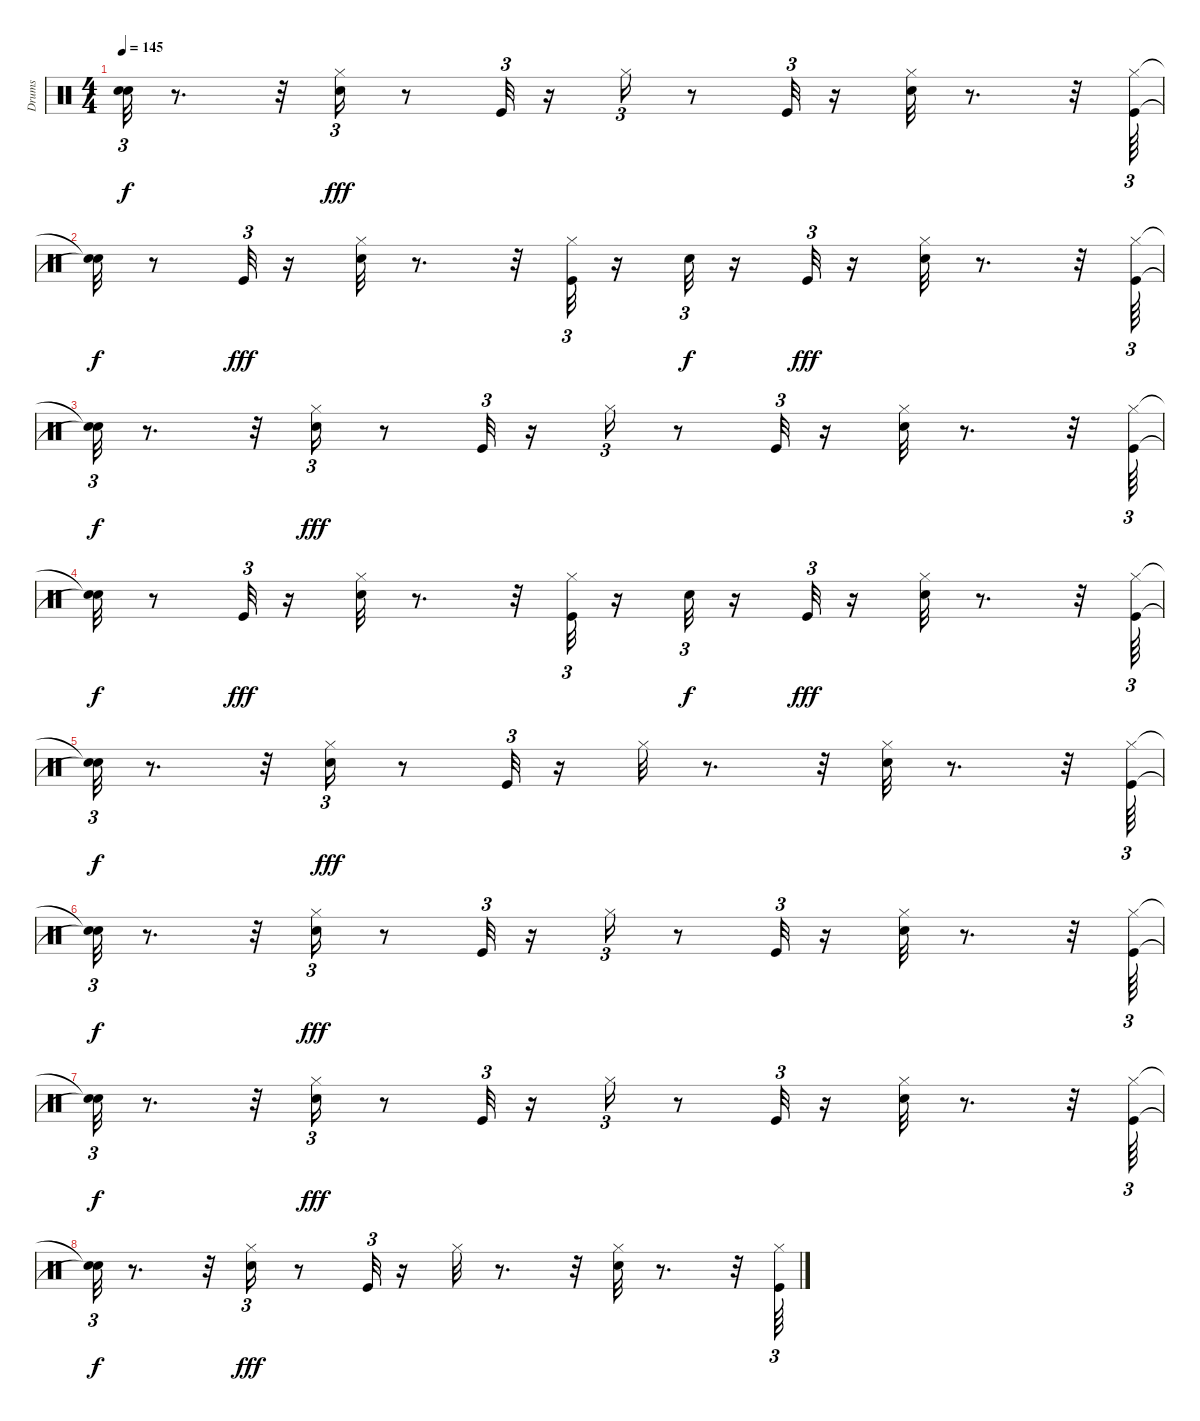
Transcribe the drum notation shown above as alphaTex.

\track ("Drums" "Drums") {instrument percussion}
\staff {score}
\articulation defaults
\ts (4 4)
\tempo 145
\clef neutral
\ks c
("Snare (hit)"{t} "Snare (hit)"{t}).32{tu (3 2) dy f} r.8{d} r.32 ("Electric Snare (hit)" "Hi-Hat (closed)").16{tu (3 2) dy fff} r.8 "Kick (hit)".32{tu (3 2)} r.16 "Hi-Hat (closed)".16{tu (3 2)} r.8 "Kick (hit)".32{tu (3 2)} r.16 ("Electric Snare (hit)" "Hi-Hat (closed)").32 r.8{d} r.32 ("Kick (hit)" "Hi-Hat (closed)").64{tu (3 2)} |
("Snare (hit)"{t} "Snare (hit)"{t}).32{dy f} r.8 "Kick (hit)".32{tu (3 2) dy fff} r.16 ("Electric Snare (hit)" "Hi-Hat (closed)").32 r.8{d} r.32 ("Kick (hit)" "Hi-Hat (closed)").32{tu (3 2)} r.16 "Electric Snare (hit)".32{tu (3 2) dy f} r.16 "Kick (hit)".32{tu (3 2) dy fff} r.16 ("Electric Snare (hit)" "Hi-Hat (closed)").32 r.8{d} r.32 ("Kick (hit)" "Hi-Hat (closed)").64{tu (3 2)} |
("Snare (hit)"{t} "Snare (hit)"{t}).32{tu (3 2) dy f} r.8{d} r.32 ("Electric Snare (hit)" "Hi-Hat (closed)").16{tu (3 2) dy fff} r.8 "Kick (hit)".32{tu (3 2)} r.16 "Hi-Hat (closed)".16{tu (3 2)} r.8 "Kick (hit)".32{tu (3 2)} r.16 ("Electric Snare (hit)" "Hi-Hat (closed)").32 r.8{d} r.32 ("Kick (hit)" "Hi-Hat (closed)").64{tu (3 2)} |
("Snare (hit)"{t} "Snare (hit)"{t}).32{dy f} r.8 "Kick (hit)".32{tu (3 2) dy fff} r.16 ("Electric Snare (hit)" "Hi-Hat (closed)").32 r.8{d} r.32 ("Kick (hit)" "Hi-Hat (closed)").32{tu (3 2)} r.16 "Electric Snare (hit)".32{tu (3 2) dy f} r.16 "Kick (hit)".32{tu (3 2) dy fff} r.16 ("Electric Snare (hit)" "Hi-Hat (closed)").32 r.8{d} r.32 ("Kick (hit)" "Hi-Hat (closed)").64{tu (3 2)} |
("Snare (hit)"{t} "Snare (hit)"{t}).32{tu (3 2) dy f} r.8{d} r.32 ("Electric Snare (hit)" "Hi-Hat (closed)").16{tu (3 2) dy fff} r.8 "Kick (hit)".32{tu (3 2)} r.16 "Hi-Hat (closed)".32 r.8{d} r.32 ("Electric Snare (hit)" "Hi-Hat (closed)").32 r.8{d} r.32 ("Kick (hit)" "Hi-Hat (closed)").64{tu (3 2)} |
("Snare (hit)"{t} "Snare (hit)"{t}).32{tu (3 2) dy f} r.8{d} r.32 ("Electric Snare (hit)" "Hi-Hat (closed)").16{tu (3 2) dy fff} r.8 "Kick (hit)".32{tu (3 2)} r.16 "Hi-Hat (closed)".16{tu (3 2)} r.8 "Kick (hit)".32{tu (3 2)} r.16 ("Electric Snare (hit)" "Hi-Hat (closed)").32 r.8{d} r.32 ("Kick (hit)" "Hi-Hat (closed)").64{tu (3 2)} |
("Snare (hit)"{t} "Snare (hit)"{t}).32{tu (3 2) dy f} r.8{d} r.32 ("Electric Snare (hit)" "Hi-Hat (closed)").16{tu (3 2) dy fff} r.8 "Kick (hit)".32{tu (3 2)} r.16 "Hi-Hat (closed)".16{tu (3 2)} r.8 "Kick (hit)".32{tu (3 2)} r.16 ("Electric Snare (hit)" "Hi-Hat (closed)").32 r.8{d} r.32 ("Kick (hit)" "Hi-Hat (closed)").64{tu (3 2)} |
("Snare (hit)"{t} "Snare (hit)"{t}).32{tu (3 2) dy f} r.8{d} r.32 ("Electric Snare (hit)" "Hi-Hat (closed)").16{tu (3 2) dy fff} r.8 "Kick (hit)".32{tu (3 2)} r.16 "Hi-Hat (closed)".32 r.8{d} r.32 ("Electric Snare (hit)" "Hi-Hat (closed)").32 r.8{d} r.32 ("Kick (hit)" "Hi-Hat (closed)").64{tu (3 2)}
